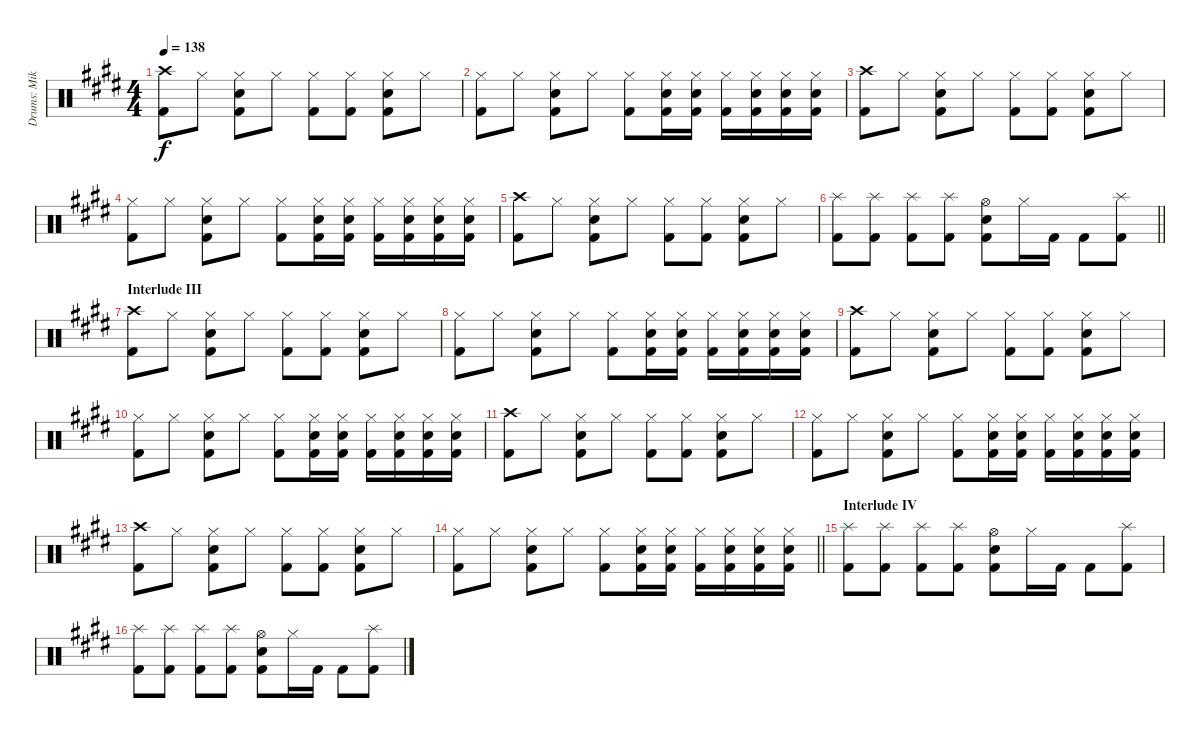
\track ("Drums: Mike" "Drums: Mik") {instrument percussion}
\staff {score}
\articulation defaults
\ts (4 4)
\tempo 138
\clef neutral
\ks e
("Crash high (hit)" "Kick (hit) 2").8{dy f} "Hi-Hat (closed)".8 ("Hi-Hat (closed)" "Electric Snare (hit)" "Kick (hit) 2").8 "Hi-Hat (closed)".8 ("Hi-Hat (closed)" "Kick (hit) 2").8 ("Hi-Hat (closed)" "Kick (hit) 2").8 ("Hi-Hat (closed)" "Electric Snare (hit)" "Kick (hit) 2").8 "Hi-Hat (closed)".8 |
("Hi-Hat (closed)" "Kick (hit) 2").8 "Hi-Hat (closed)".8 ("Hi-Hat (closed)" "Electric Snare (hit)" "Kick (hit) 2").8 "Hi-Hat (closed)".8 ("Hi-Hat (closed)" "Kick (hit) 2").8 ("Hi-Hat (closed)" "Electric Snare (hit)" "Kick (hit) 2").16 ("Hi-Hat (closed)" "Electric Snare (hit)" "Kick (hit) 2").16 ("Hi-Hat (closed)" "Kick (hit) 2").16 ("Hi-Hat (closed)" "Electric Snare (hit)" "Kick (hit) 2").16 ("Hi-Hat (closed)" "Electric Snare (hit)" "Kick (hit) 2").16 ("Hi-Hat (closed)" "Electric Snare (hit)" "Kick (hit) 2").16 |
("Crash high (hit)" "Kick (hit) 2").8 "Hi-Hat (closed)".8 ("Hi-Hat (closed)" "Electric Snare (hit)" "Kick (hit) 2").8 "Hi-Hat (closed)".8 ("Hi-Hat (closed)" "Kick (hit) 2").8 ("Hi-Hat (closed)" "Kick (hit) 2").8 ("Hi-Hat (closed)" "Electric Snare (hit)" "Kick (hit) 2").8 "Hi-Hat (closed)".8 |
("Hi-Hat (closed)" "Kick (hit) 2").8 "Hi-Hat (closed)".8 ("Hi-Hat (closed)" "Electric Snare (hit)" "Kick (hit) 2").8 "Hi-Hat (closed)".8 ("Hi-Hat (closed)" "Kick (hit) 2").8 ("Hi-Hat (closed)" "Electric Snare (hit)" "Kick (hit) 2").16 ("Hi-Hat (closed)" "Electric Snare (hit)" "Kick (hit) 2").16 ("Hi-Hat (closed)" "Kick (hit) 2").16 ("Hi-Hat (closed)" "Electric Snare (hit)" "Kick (hit) 2").16 ("Hi-Hat (closed)" "Electric Snare (hit)" "Kick (hit) 2").16 ("Hi-Hat (closed)" "Electric Snare (hit)" "Kick (hit) 2").16 |
("Crash high (hit)" "Kick (hit) 2").8 "Hi-Hat (closed)".8 ("Hi-Hat (closed)" "Electric Snare (hit)" "Kick (hit) 2").8 "Hi-Hat (closed)".8 ("Hi-Hat (closed)" "Kick (hit) 2").8 ("Hi-Hat (closed)" "Kick (hit) 2").8 ("Hi-Hat (closed)" "Electric Snare (hit)" "Kick (hit) 2").8 "Hi-Hat (closed)".8 |
\barLineRight lightlight
("Splash (hit)" "Kick (hit) 2").8 ("Splash (hit)" "Kick (hit) 2").8 ("Splash (hit)" "Kick (hit) 2").8 ("Splash (hit)" "Kick (hit) 2").8 ("Hi-Hat (open)" "Snare (hit) 2" "Kick (hit) 2").8 "Hi-Hat (closed)".16 "Kick (hit) 2".16 "Kick (hit) 2".8 ("Splash (hit)" "Kick (hit) 2").8 |
\section ("" "Interlude III")
("Crash high (hit)" "Kick (hit) 2").8 "Hi-Hat (closed)".8 ("Hi-Hat (closed)" "Electric Snare (hit)" "Kick (hit) 2").8 "Hi-Hat (closed)".8 ("Hi-Hat (closed)" "Kick (hit) 2").8 ("Hi-Hat (closed)" "Kick (hit) 2").8 ("Hi-Hat (closed)" "Electric Snare (hit)" "Kick (hit) 2").8 "Hi-Hat (closed)".8 |
("Hi-Hat (closed)" "Kick (hit) 2").8 "Hi-Hat (closed)".8 ("Hi-Hat (closed)" "Electric Snare (hit)" "Kick (hit) 2").8 "Hi-Hat (closed)".8 ("Hi-Hat (closed)" "Kick (hit) 2").8 ("Hi-Hat (closed)" "Electric Snare (hit)" "Kick (hit) 2").16 ("Hi-Hat (closed)" "Electric Snare (hit)" "Kick (hit) 2").16 ("Hi-Hat (closed)" "Kick (hit) 2").16 ("Hi-Hat (closed)" "Electric Snare (hit)" "Kick (hit) 2").16 ("Hi-Hat (closed)" "Electric Snare (hit)" "Kick (hit) 2").16 ("Hi-Hat (closed)" "Electric Snare (hit)" "Kick (hit) 2").16 |
("Crash high (hit)" "Kick (hit) 2").8 "Hi-Hat (closed)".8 ("Hi-Hat (closed)" "Electric Snare (hit)" "Kick (hit) 2").8 "Hi-Hat (closed)".8 ("Hi-Hat (closed)" "Kick (hit) 2").8 ("Hi-Hat (closed)" "Kick (hit) 2").8 ("Hi-Hat (closed)" "Electric Snare (hit)" "Kick (hit) 2").8 "Hi-Hat (closed)".8 |
("Hi-Hat (closed)" "Kick (hit) 2").8 "Hi-Hat (closed)".8 ("Hi-Hat (closed)" "Electric Snare (hit)" "Kick (hit) 2").8 "Hi-Hat (closed)".8 ("Hi-Hat (closed)" "Kick (hit) 2").8 ("Hi-Hat (closed)" "Electric Snare (hit)" "Kick (hit) 2").16 ("Hi-Hat (closed)" "Electric Snare (hit)" "Kick (hit) 2").16 ("Hi-Hat (closed)" "Kick (hit) 2").16 ("Hi-Hat (closed)" "Electric Snare (hit)" "Kick (hit) 2").16 ("Hi-Hat (closed)" "Electric Snare (hit)" "Kick (hit) 2").16 ("Hi-Hat (closed)" "Electric Snare (hit)" "Kick (hit) 2").16 |
("Crash high (hit)" "Kick (hit) 2").8 "Hi-Hat (closed)".8 ("Hi-Hat (closed)" "Electric Snare (hit)" "Kick (hit) 2").8 "Hi-Hat (closed)".8 ("Hi-Hat (closed)" "Kick (hit) 2").8 ("Hi-Hat (closed)" "Kick (hit) 2").8 ("Hi-Hat (closed)" "Electric Snare (hit)" "Kick (hit) 2").8 "Hi-Hat (closed)".8 |
("Hi-Hat (closed)" "Kick (hit) 2").8 "Hi-Hat (closed)".8 ("Hi-Hat (closed)" "Electric Snare (hit)" "Kick (hit) 2").8 "Hi-Hat (closed)".8 ("Hi-Hat (closed)" "Kick (hit) 2").8 ("Hi-Hat (closed)" "Electric Snare (hit)" "Kick (hit) 2").16 ("Hi-Hat (closed)" "Electric Snare (hit)" "Kick (hit) 2").16 ("Hi-Hat (closed)" "Kick (hit) 2").16 ("Hi-Hat (closed)" "Electric Snare (hit)" "Kick (hit) 2").16 ("Hi-Hat (closed)" "Electric Snare (hit)" "Kick (hit) 2").16 ("Hi-Hat (closed)" "Electric Snare (hit)" "Kick (hit) 2").16 |
("Crash high (hit)" "Kick (hit) 2").8 "Hi-Hat (closed)".8 ("Hi-Hat (closed)" "Electric Snare (hit)" "Kick (hit) 2").8 "Hi-Hat (closed)".8 ("Hi-Hat (closed)" "Kick (hit) 2").8 ("Hi-Hat (closed)" "Kick (hit) 2").8 ("Hi-Hat (closed)" "Electric Snare (hit)" "Kick (hit) 2").8 "Hi-Hat (closed)".8 |
\barLineRight lightlight
("Hi-Hat (closed)" "Kick (hit) 2").8 "Hi-Hat (closed)".8 ("Hi-Hat (closed)" "Electric Snare (hit)" "Kick (hit) 2").8 "Hi-Hat (closed)".8 ("Hi-Hat (closed)" "Kick (hit) 2").8 ("Hi-Hat (closed)" "Electric Snare (hit)" "Kick (hit) 2").16 ("Hi-Hat (closed)" "Electric Snare (hit)" "Kick (hit) 2").16 ("Hi-Hat (closed)" "Kick (hit) 2").16 ("Hi-Hat (closed)" "Electric Snare (hit)" "Kick (hit) 2").16 ("Hi-Hat (closed)" "Electric Snare (hit)" "Kick (hit) 2").16 ("Hi-Hat (closed)" "Electric Snare (hit)" "Kick (hit) 2").16 |
\section ("" "Interlude IV")
("Splash (hit)" "Kick (hit) 2").8 ("Splash (hit)" "Kick (hit) 2").8 ("Splash (hit)" "Kick (hit) 2").8 ("Splash (hit)" "Kick (hit) 2").8 ("Hi-Hat (open)" "Snare (hit) 2" "Kick (hit) 2").8 "Hi-Hat (closed)".16 "Kick (hit) 2".16 "Kick (hit) 2".8 ("Splash (hit)" "Kick (hit) 2").8 |
("Splash (hit)" "Kick (hit) 2").8 ("Splash (hit)" "Kick (hit) 2").8 ("Splash (hit)" "Kick (hit) 2").8 ("Splash (hit)" "Kick (hit) 2").8 ("Hi-Hat (open)" "Snare (hit) 2" "Kick (hit) 2").8 "Hi-Hat (closed)".16 "Kick (hit) 2".16 "Kick (hit) 2".8 ("Splash (hit)" "Kick (hit) 2").8
